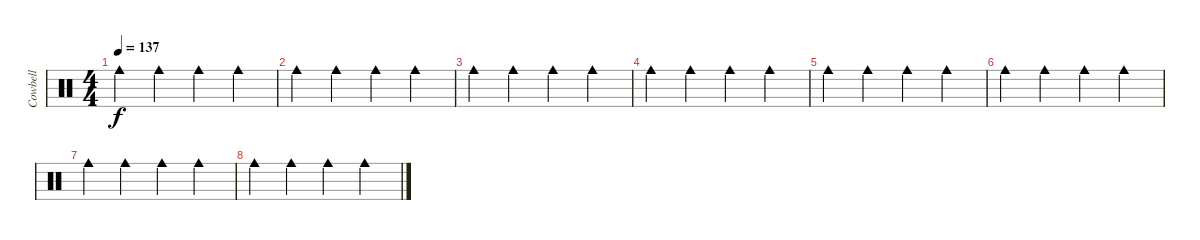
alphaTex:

\track ("Cowbell" "Cowbell") {instrument percussion}
\staff {score}
\articulation defaults
\ts (4 4)
\tempo 137
\clef neutral
\ks c "Cowbell medium (hit)".4{dy f} "Cowbell medium (hit)".4 "Cowbell medium (hit)".4 "Cowbell medium (hit)".4
|
"Cowbell medium (hit)".4 "Cowbell medium (hit)".4 "Cowbell medium (hit)".4 "Cowbell medium (hit)".4 |
"Cowbell medium (hit)".4 "Cowbell medium (hit)".4 "Cowbell medium (hit)".4 "Cowbell medium (hit)".4 |
"Cowbell medium (hit)".4 "Cowbell medium (hit)".4 "Cowbell medium (hit)".4 "Cowbell medium (hit)".4 |
"Cowbell medium (hit)".4 "Cowbell medium (hit)".4 "Cowbell medium (hit)".4 "Cowbell medium (hit)".4 |
"Cowbell medium (hit)".4 "Cowbell medium (hit)".4 "Cowbell medium (hit)".4 "Cowbell medium (hit)".4 |
"Cowbell medium (hit)".4 "Cowbell medium (hit)".4 "Cowbell medium (hit)".4 "Cowbell medium (hit)".4 |
"Cowbell medium (hit)".4 "Cowbell medium (hit)".4 "Cowbell medium (hit)".4 "Cowbell medium (hit)".4
